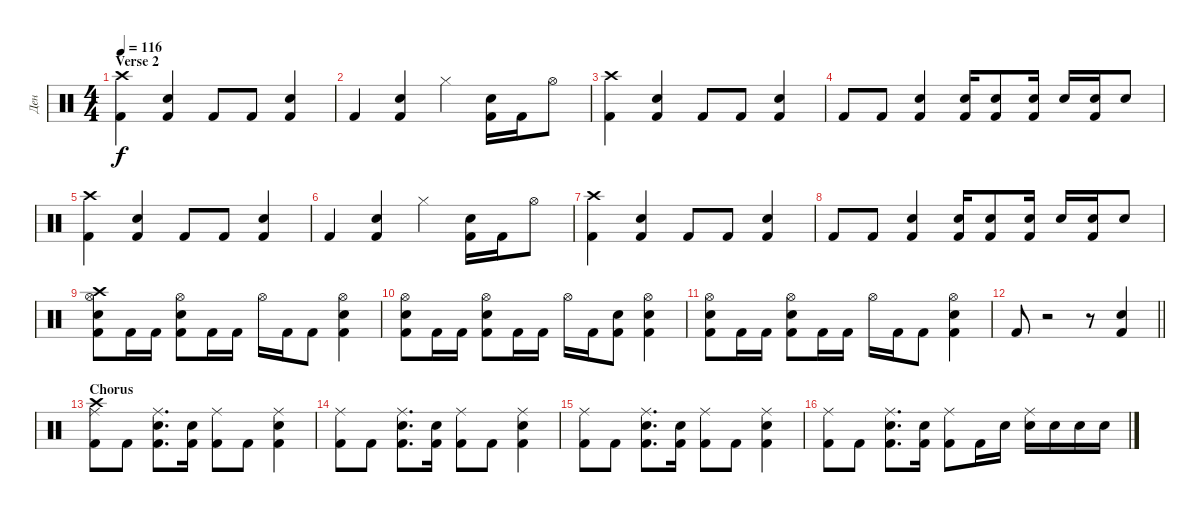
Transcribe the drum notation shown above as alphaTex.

\track ("Ден" "Ден") {instrument percussion}
\staff {score}
\articulation defaults
\ts (4 4)
\section ("" "Verse 2")
\tempo 116
\clef neutral
\ks c
("Crash high (hit)" "Kick (hit) 2").4{dy f} ("Electric Snare (hit)" "Kick (hit) 2").4 "Kick (hit) 2".8 "Kick (hit) 2".8 ("Electric Snare (hit)" "Kick (hit) 2").4 |
"Kick (hit) 2".4 ("Electric Snare (hit)" "Kick (hit) 2").4 "Hi-Hat (closed)".4 ("Electric Snare (hit)" "Kick (hit) 2").16 "Kick (hit) 2".16 "Hi-Hat (open)".8 |
("Crash high (hit)" "Kick (hit) 2").4 ("Electric Snare (hit)" "Kick (hit) 2").4 "Kick (hit) 2".8 "Kick (hit) 2".8 ("Electric Snare (hit)" "Kick (hit) 2").4 |
"Kick (hit) 2".8 "Kick (hit) 2".8 ("Electric Snare (hit)" "Kick (hit) 2").4 ("Electric Snare (hit)" "Kick (hit) 2").16 ("Electric Snare (hit)" "Kick (hit) 2").8 ("Electric Snare (hit)" "Kick (hit) 2").16 "Electric Snare (hit)".16 ("Electric Snare (hit)" "Kick (hit) 2").16 "Electric Snare (hit)".8 |
("Crash high (hit)" "Kick (hit) 2").4 ("Electric Snare (hit)" "Kick (hit) 2").4 "Kick (hit) 2".8 "Kick (hit) 2".8 ("Electric Snare (hit)" "Kick (hit) 2").4 |
"Kick (hit) 2".4 ("Electric Snare (hit)" "Kick (hit) 2").4 "Hi-Hat (closed)".4 ("Electric Snare (hit)" "Kick (hit) 2").16 "Kick (hit) 2".16 "Hi-Hat (open)".8 |
("Crash high (hit)" "Kick (hit) 2").4 ("Electric Snare (hit)" "Kick (hit) 2").4 "Kick (hit) 2".8 "Kick (hit) 2".8 ("Electric Snare (hit)" "Kick (hit) 2").4 |
"Kick (hit) 2".8 "Kick (hit) 2".8 ("Electric Snare (hit)" "Kick (hit) 2").4 ("Electric Snare (hit)" "Kick (hit) 2").16 ("Electric Snare (hit)" "Kick (hit) 2").8 ("Electric Snare (hit)" "Kick (hit) 2").16 "Electric Snare (hit)".16 ("Electric Snare (hit)" "Kick (hit) 2").16 "Electric Snare (hit)".8 |
("Crash high (hit)" "Hi-Hat (open)" "Electric Snare (hit)" "Kick (hit) 2").8 "Kick (hit) 2".16 "Kick (hit) 2".16 ("Hi-Hat (open)" "Electric Snare (hit)" "Kick (hit) 2").8 "Kick (hit) 2".16 "Kick (hit) 2".16 "Hi-Hat (open)".16 "Kick (hit) 2".16 "Kick (hit) 2".8 ("Hi-Hat (open)" "Electric Snare (hit)" "Kick (hit) 2").4 |
("Hi-Hat (open)" "Electric Snare (hit)" "Kick (hit) 2").8 "Kick (hit) 2".16 "Kick (hit) 2".16 ("Hi-Hat (open)" "Electric Snare (hit)" "Kick (hit) 2").8 "Kick (hit) 2".16 "Kick (hit) 2".16 "Hi-Hat (open)".16 "Kick (hit) 2".16 ("Electric Snare (hit)" "Kick (hit) 2").8 ("Hi-Hat (open)" "Electric Snare (hit)" "Kick (hit) 2").4 |
("Hi-Hat (open)" "Electric Snare (hit)" "Kick (hit) 2").8 "Kick (hit) 2".16 "Kick (hit) 2".16 ("Hi-Hat (open)" "Electric Snare (hit)" "Kick (hit) 2").8 "Kick (hit) 2".16 "Kick (hit) 2".16 "Hi-Hat (open)".16 "Kick (hit) 2".16 "Kick (hit) 2".8 ("Hi-Hat (open)" "Electric Snare (hit)" "Kick (hit) 2").4 |
\barLineRight lightlight "Kick (hit) 2".8
r.2 r.8 ("Electric Snare (hit)" "Kick (hit) 2").4 |
\section ("" "Chorus")
("Crash high (hit)" "Ride (middle)" "Kick (hit) 2").8 "Kick (hit) 2".8 ("Ride (middle)" "Electric Snare (hit)" "Kick (hit) 2").8{d} ("Electric Snare (hit)" "Kick (hit) 2").16 ("Ride (middle)" "Kick (hit) 2").8 "Kick (hit) 2".8 ("Ride (middle)" "Electric Snare (hit)" "Kick (hit) 2").4 |
("Ride (middle)" "Kick (hit) 2").8 "Kick (hit) 2".8 ("Ride (middle)" "Electric Snare (hit)" "Kick (hit) 2").8{d} ("Electric Snare (hit)" "Kick (hit) 2").16 ("Ride (middle)" "Kick (hit) 2").8 "Kick (hit) 2".8 ("Ride (middle)" "Electric Snare (hit)" "Kick (hit) 2").4 |
("Ride (middle)" "Kick (hit) 2").8 "Kick (hit) 2".8 ("Ride (middle)" "Electric Snare (hit)" "Kick (hit) 2").8{d} ("Electric Snare (hit)" "Kick (hit) 2").16 ("Ride (middle)" "Kick (hit) 2").8 "Kick (hit) 2".8 ("Ride (middle)" "Electric Snare (hit)" "Kick (hit) 2").4 |
("Ride (middle)" "Kick (hit) 2").8 "Kick (hit) 2".8 ("Ride (middle)" "Electric Snare (hit)" "Kick (hit) 2").8{d} ("Electric Snare (hit)" "Kick (hit) 2").16 ("Ride (middle)" "Kick (hit) 2").8 "Kick (hit) 2".16 "Electric Snare (hit)".16 ("Ride (middle)" "Electric Snare (hit)").16 "Electric Snare (hit)".16 "Electric Snare (hit)".16 "Electric Snare (hit)".16
